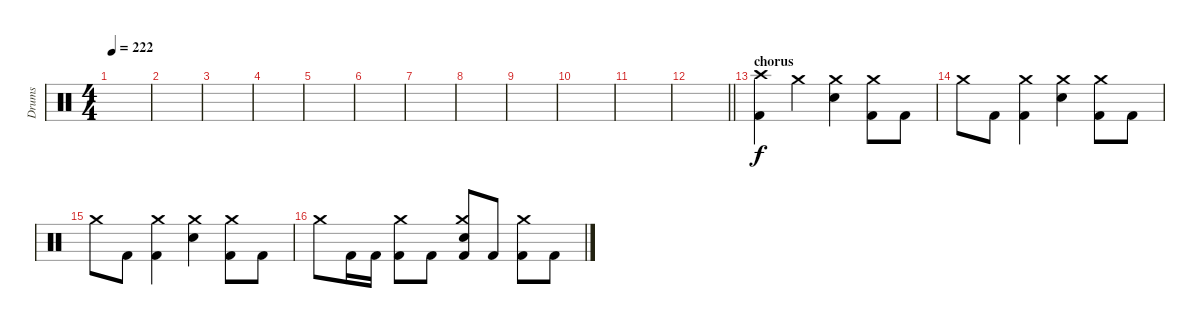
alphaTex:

\track ("Drums" "Drums") {instrument percussion}
\staff {score}
\articulation defaults
\ts (4 4)
\tempo 222
\clef neutral
\ks c
|
|
|
|
|
|
|
|
|
|
|
\barLineRight lightlight
|
\section ("" "chorus")
("Crash high (hit)" "Kick (hit) 2").4 "Crash medium (hit)".4 ("Crash medium (hit)" "Electric Snare (hit)").4 ("Crash medium (hit)" "Kick (hit) 2").8 "Kick (hit) 2".8 |
"Crash medium (hit)".8 "Kick (hit) 2".8 ("Crash medium (hit)" "Kick (hit) 2").4 ("Crash medium (hit)" "Electric Snare (hit)").4 ("Crash medium (hit)" "Kick (hit) 2").8 "Kick (hit) 2".8 |
"Crash medium (hit)".8 "Kick (hit) 2".8 ("Crash medium (hit)" "Kick (hit) 2").4 ("Crash medium (hit)" "Electric Snare (hit)").4 ("Crash medium (hit)" "Kick (hit) 2").8 "Kick (hit) 2".8 |
"Crash medium (hit)".8 "Kick (hit) 2".16 "Kick (hit) 2".16 ("Crash medium (hit)" "Kick (hit) 2").8 "Kick (hit) 2".8 ("Crash medium (hit)" "Electric Snare (hit)" "Kick (hit) 2").8 "Kick (hit) 2".8 ("Crash medium (hit)" "Kick (hit) 2").8 "Kick (hit) 2".8
